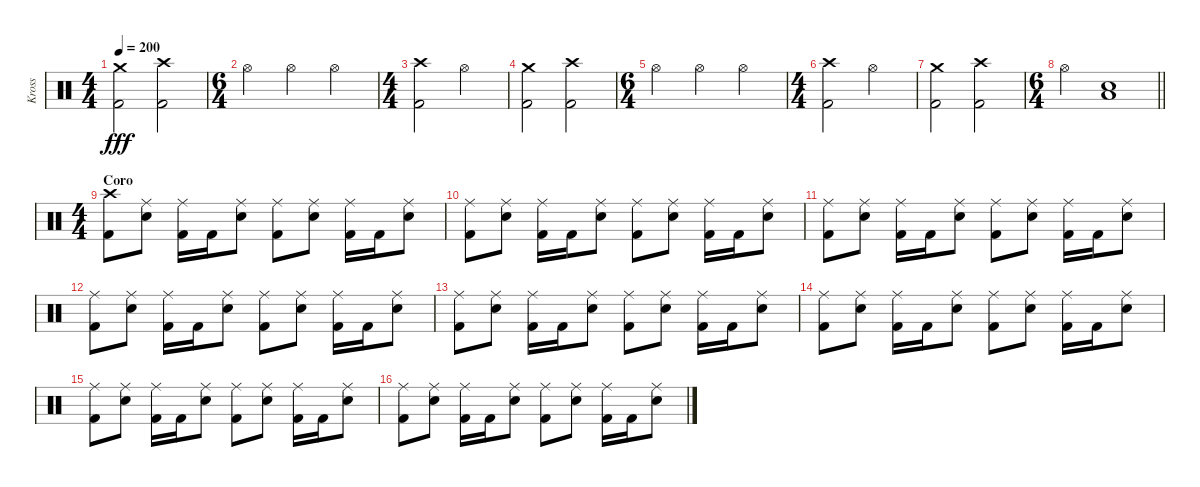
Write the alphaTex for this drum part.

\track ("Kross" "Kross") {instrument percussion}
\staff {score}
\articulation defaults
\ts (4 4)
\tempo 200
\clef neutral
\ks c
("Crash medium (hit)" "Kick (hit) 2").2{dy fff} ("Crash high (hit)" "Kick (hit) 2").2 |
\ts (6 4)
"Hi-Hat (open)".2 "Hi-Hat (open)".2 "Hi-Hat (open)".2 |
\ts (4 4)
("Crash high (hit)" "Kick (hit) 2").2 "Hi-Hat (open)".2 |
("Crash medium (hit)" "Kick (hit) 2").2 ("Crash high (hit)" "Kick (hit) 2").2 |
\ts (6 4)
"Hi-Hat (open)".2 "Hi-Hat (open)".2 "Hi-Hat (open)".2 |
\ts (4 4)
("Crash high (hit)" "Kick (hit) 2").2 "Hi-Hat (open)".2 |
("Crash medium (hit)" "Kick (hit) 2").2 ("Crash high (hit)" "Kick (hit) 2").2 |
\ts (6 4)
\barLineRight lightlight "Hi-Hat (open)".2
("Low Tom (hit)" "Electric Snare (hit)").1 |
\ts (4 4)
\section ("" "Coro")
("Crash high (hit)" "Kick (hit) 2").8 ("Ride (middle)" "Electric Snare (hit)").8 ("Ride (middle)" "Kick (hit) 2").16 "Kick (hit) 2".16 ("Ride (middle)" "Electric Snare (hit)").8 ("Ride (middle)" "Kick (hit) 2").8 ("Ride (middle)" "Electric Snare (hit)").8 ("Ride (middle)" "Kick (hit) 2").16 "Kick (hit) 2".16 ("Ride (middle)" "Electric Snare (hit)").8 |
("Ride (middle)" "Kick (hit) 2").8 ("Ride (middle)" "Electric Snare (hit)").8 ("Ride (middle)" "Kick (hit) 2").16 "Kick (hit) 2".16 ("Ride (middle)" "Electric Snare (hit)").8 ("Ride (middle)" "Kick (hit) 2").8 ("Ride (middle)" "Electric Snare (hit)").8 ("Ride (middle)" "Kick (hit) 2").16 "Kick (hit) 2".16 ("Ride (middle)" "Electric Snare (hit)").8 |
("Ride (middle)" "Kick (hit) 2").8 ("Ride (middle)" "Electric Snare (hit)").8 ("Ride (middle)" "Kick (hit) 2").16 "Kick (hit) 2".16 ("Ride (middle)" "Electric Snare (hit)").8 ("Ride (middle)" "Kick (hit) 2").8 ("Ride (middle)" "Electric Snare (hit)").8 ("Ride (middle)" "Kick (hit) 2").16 "Kick (hit) 2".16 ("Ride (middle)" "Electric Snare (hit)").8 |
("Ride (middle)" "Kick (hit) 2").8 ("Ride (middle)" "Electric Snare (hit)").8 ("Ride (middle)" "Kick (hit) 2").16 "Kick (hit) 2".16 ("Ride (middle)" "Electric Snare (hit)").8 ("Ride (middle)" "Kick (hit) 2").8 ("Ride (middle)" "Electric Snare (hit)").8 ("Ride (middle)" "Kick (hit) 2").16 "Kick (hit) 2".16 ("Ride (middle)" "Electric Snare (hit)").8 |
("Ride (middle)" "Kick (hit) 2").8 ("Ride (middle)" "Electric Snare (hit)").8 ("Ride (middle)" "Kick (hit) 2").16 "Kick (hit) 2".16 ("Ride (middle)" "Electric Snare (hit)").8 ("Ride (middle)" "Kick (hit) 2").8 ("Ride (middle)" "Electric Snare (hit)").8 ("Ride (middle)" "Kick (hit) 2").16 "Kick (hit) 2".16 ("Ride (middle)" "Electric Snare (hit)").8 |
("Ride (middle)" "Kick (hit) 2").8 ("Ride (middle)" "Electric Snare (hit)").8 ("Ride (middle)" "Kick (hit) 2").16 "Kick (hit) 2".16 ("Ride (middle)" "Electric Snare (hit)").8 ("Ride (middle)" "Kick (hit) 2").8 ("Ride (middle)" "Electric Snare (hit)").8 ("Ride (middle)" "Kick (hit) 2").16 "Kick (hit) 2".16 ("Ride (middle)" "Electric Snare (hit)").8 |
("Ride (middle)" "Kick (hit) 2").8 ("Ride (middle)" "Electric Snare (hit)").8 ("Ride (middle)" "Kick (hit) 2").16 "Kick (hit) 2".16 ("Ride (middle)" "Electric Snare (hit)").8 ("Ride (middle)" "Kick (hit) 2").8 ("Ride (middle)" "Electric Snare (hit)").8 ("Ride (middle)" "Kick (hit) 2").16 "Kick (hit) 2".16 ("Ride (middle)" "Electric Snare (hit)").8 |
("Ride (middle)" "Kick (hit) 2").8 ("Ride (middle)" "Electric Snare (hit)").8 ("Ride (middle)" "Kick (hit) 2").16 "Kick (hit) 2".16 ("Ride (middle)" "Electric Snare (hit)").8 ("Ride (middle)" "Kick (hit) 2").8 ("Ride (middle)" "Electric Snare (hit)").8 ("Ride (middle)" "Kick (hit) 2").16 "Kick (hit) 2".16 ("Ride (middle)" "Electric Snare (hit)").8
